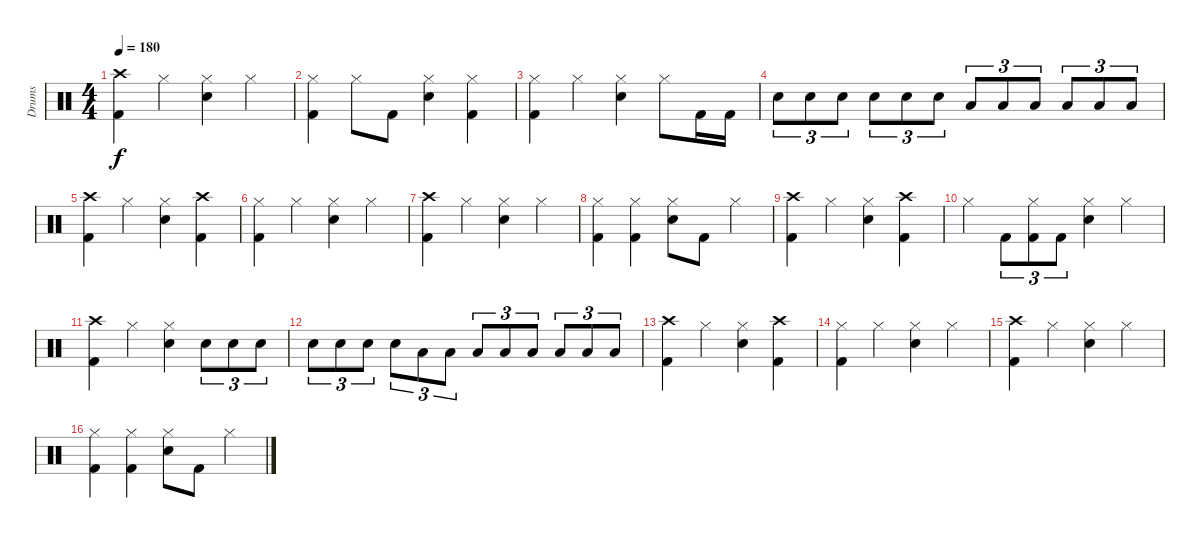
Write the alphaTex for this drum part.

\track ("Drums" "Drums") {instrument percussion}
\staff {score}
\articulation defaults
\ts (4 4)
\tempo 180
\clef neutral
\ks c
("Crash high (hit)" "Kick (hit) 2").4{dy f} "Hi-Hat (closed)".4 ("Hi-Hat (closed)" "Electric Snare (hit)").4 "Hi-Hat (closed)".4 |
("Hi-Hat (closed)" "Kick (hit) 2").4 "Hi-Hat (closed)".8 "Kick (hit) 2".8 ("Hi-Hat (closed)" "Electric Snare (hit)").4 ("Hi-Hat (closed)" "Kick (hit) 2").4 |
("Hi-Hat (closed)" "Kick (hit) 2").4 "Hi-Hat (closed)".4 ("Hi-Hat (closed)" "Electric Snare (hit)").4 "Hi-Hat (closed)".8 "Kick (hit) 2".16 "Kick (hit) 2".16 |
"Electric Snare (hit)".8{tu (3 2)} "Electric Snare (hit)".8{tu (3 2)} "Electric Snare (hit)".8{tu (3 2)} "Electric Snare (hit)".8{tu (3 2)} "Electric Snare (hit)".8{tu (3 2)} "Electric Snare (hit)".8{tu (3 2)} "Low Tom (hit)".8{tu (3 2)} "Low Tom (hit)".8{tu (3 2)} "Low Tom (hit)".8{tu (3 2)} "Low Tom (hit)".8{tu (3 2)} "Low Tom (hit)".8{tu (3 2)} "Low Tom (hit)".8{tu (3 2)} |
("Crash high (hit)" "Kick (hit) 2").4 "Hi-Hat (closed)".4 ("Hi-Hat (closed)" "Electric Snare (hit)").4 ("Crash high (hit)" "Kick (hit) 2").4 |
("Hi-Hat (closed)" "Kick (hit) 2").4 "Hi-Hat (closed)".4 ("Hi-Hat (closed)" "Electric Snare (hit)").4 "Hi-Hat (closed)".4 |
("Crash high (hit)" "Kick (hit) 2").4 "Hi-Hat (closed)".4 ("Hi-Hat (closed)" "Electric Snare (hit)").4 "Hi-Hat (closed)".4 |
("Hi-Hat (closed)" "Kick (hit) 2").4 ("Hi-Hat (closed)" "Kick (hit) 2").4 ("Hi-Hat (closed)" "Electric Snare (hit)").8 "Kick (hit) 2".8 "Hi-Hat (closed)".4 |
("Crash high (hit)" "Kick (hit) 2").4 "Hi-Hat (closed)".4 ("Hi-Hat (closed)" "Electric Snare (hit)").4 ("Crash high (hit)" "Kick (hit) 2").4 |
"Hi-Hat (closed)".4 "Kick (hit) 2".8{tu (3 2)} ("Hi-Hat (closed)" "Kick (hit) 2").8{tu (3 2)} "Kick (hit) 2".8{tu (3 2)} ("Hi-Hat (closed)" "Electric Snare (hit)").4 "Hi-Hat (closed)".4 |
("Crash high (hit)" "Kick (hit) 2").4 "Hi-Hat (closed)".4 ("Hi-Hat (closed)" "Electric Snare (hit)").4 "Electric Snare (hit)".8{tu (3 2)} "Electric Snare (hit)".8{tu (3 2)} "Electric Snare (hit)".8{tu (3 2)} |
"Electric Snare (hit)".8{tu (3 2)} "Electric Snare (hit)".8{tu (3 2)} "Electric Snare (hit)".8{tu (3 2)} "Electric Snare (hit)".8{tu (3 2)} "Low Tom (hit)".8{tu (3 2)} "Low Tom (hit)".8{tu (3 2)} "Low Tom (hit)".8{tu (3 2)} "Low Tom (hit)".8{tu (3 2)} "Low Tom (hit)".8{tu (3 2)} "Low Tom (hit)".8{tu (3 2)} "Low Tom (hit)".8{tu (3 2)} "Low Tom (hit)".8{tu (3 2)} |
("Crash high (hit)" "Kick (hit) 2").4 "Hi-Hat (closed)".4 ("Hi-Hat (closed)" "Electric Snare (hit)").4 ("Crash high (hit)" "Kick (hit) 2").4 |
("Hi-Hat (closed)" "Kick (hit) 2").4 "Hi-Hat (closed)".4 ("Hi-Hat (closed)" "Electric Snare (hit)").4 "Hi-Hat (closed)".4 |
("Crash high (hit)" "Kick (hit) 2").4 "Hi-Hat (closed)".4 ("Hi-Hat (closed)" "Electric Snare (hit)").4 "Hi-Hat (closed)".4 |
("Hi-Hat (closed)" "Kick (hit) 2").4 ("Hi-Hat (closed)" "Kick (hit) 2").4 ("Hi-Hat (closed)" "Electric Snare (hit)").8 "Kick (hit) 2".8 "Hi-Hat (closed)".4
